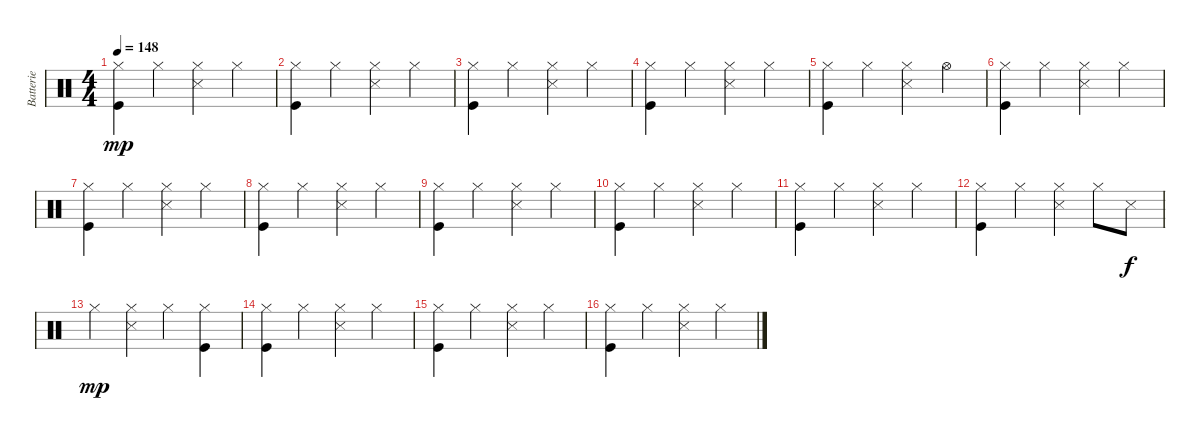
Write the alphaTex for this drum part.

\track ("Batterie" "Batterie") {instrument percussion}
\staff {score}
\articulation defaults
\ts (4 4)
\tempo 148
\clef neutral
\ks c
("Hi-Hat (closed)" "Kick (hit)").4{dy mp} "Hi-Hat (closed)".4 ("Hi-Hat (closed)" "Metronome (hit)").4 "Hi-Hat (closed)".4 |
("Hi-Hat (closed)" "Kick (hit)").4 "Hi-Hat (closed)".4 ("Hi-Hat (closed)" "Metronome (hit)").4 "Hi-Hat (closed)".4 |
("Hi-Hat (closed)" "Kick (hit)").4 "Hi-Hat (closed)".4 ("Hi-Hat (closed)" "Metronome (hit)").4 "Hi-Hat (closed)".4 |
("Hi-Hat (closed)" "Kick (hit)").4 "Hi-Hat (closed)".4 ("Hi-Hat (closed)" "Metronome (hit)").4 "Hi-Hat (closed)".4 |
("Hi-Hat (closed)" "Kick (hit)").4 "Hi-Hat (closed)".4 ("Hi-Hat (closed)" "Metronome (hit)").4 "Hi-Hat (open)".4 |
("Hi-Hat (closed)" "Kick (hit)").4 "Hi-Hat (closed)".4 ("Hi-Hat (closed)" "Metronome (hit)").4 "Hi-Hat (closed)".4 |
("Hi-Hat (closed)" "Kick (hit)").4 "Hi-Hat (closed)".4 ("Hi-Hat (closed)" "Metronome (hit)").4 "Hi-Hat (closed)".4 |
("Hi-Hat (closed)" "Kick (hit)").4 "Hi-Hat (closed)".4 ("Hi-Hat (closed)" "Metronome (hit)").4 "Hi-Hat (closed)".4 |
("Hi-Hat (closed)" "Kick (hit)").4 "Hi-Hat (closed)".4 ("Hi-Hat (closed)" "Metronome (hit)").4 "Hi-Hat (closed)".4 |
("Hi-Hat (closed)" "Kick (hit)").4 "Hi-Hat (closed)".4 ("Hi-Hat (closed)" "Metronome (hit)").4 "Hi-Hat (closed)".4 |
("Hi-Hat (closed)" "Kick (hit)").4 "Hi-Hat (closed)".4 ("Hi-Hat (closed)" "Metronome (hit)").4 "Hi-Hat (closed)".4 |
("Hi-Hat (closed)" "Kick (hit)").4 "Hi-Hat (closed)".4 ("Hi-Hat (closed)" "Metronome (hit)").4 "Hi-Hat (closed)".8 "Metronome (hit)".8{dy f} |
"Hi-Hat (closed)".4{dy mp} ("Hi-Hat (closed)" "Metronome (hit)").4 "Hi-Hat (closed)".4 ("Hi-Hat (closed)" "Kick (hit)").4 |
("Hi-Hat (closed)" "Kick (hit)").4 "Hi-Hat (closed)".4 ("Hi-Hat (closed)" "Metronome (hit)").4 "Hi-Hat (closed)".4 |
("Hi-Hat (closed)" "Kick (hit)").4 "Hi-Hat (closed)".4 ("Hi-Hat (closed)" "Metronome (hit)").4 "Hi-Hat (closed)".4 |
("Hi-Hat (closed)" "Kick (hit)").4 "Hi-Hat (closed)".4 ("Hi-Hat (closed)" "Metronome (hit)").4 "Hi-Hat (closed)".4
